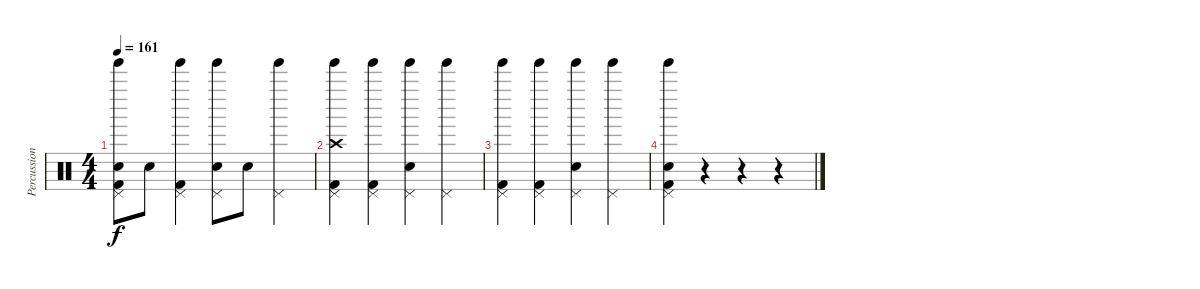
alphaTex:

\track ("Percussion" "Percussion") {instrument percussion}
\staff {score}
\articulation defaults
\ts (4 4)
\tempo 161
\clef neutral
\ks c
("Tinkle Bell (hit)" "Pedal Hi-Hat (hit)" "Electric Snare (hit)" "Kick (hit) 2").8{dy f} "Electric Snare (hit)".8 ("Tinkle Bell (hit)" "Pedal Hi-Hat (hit)" "Kick (hit) 2").4 ("Tinkle Bell (hit)" "Pedal Hi-Hat (hit)" "Electric Snare (hit)").8 "Electric Snare (hit)".8 ("Tinkle Bell (hit)" "Pedal Hi-Hat (hit)").4 |
("Tinkle Bell (hit)" "Pedal Hi-Hat (hit)" "Crash high (hit)" "Kick (hit) 2").4 ("Tinkle Bell (hit)" "Pedal Hi-Hat (hit)" "Kick (hit) 2").4 ("Tinkle Bell (hit)" "Pedal Hi-Hat (hit)" "Electric Snare (hit)").4 ("Tinkle Bell (hit)" "Pedal Hi-Hat (hit)").4 |
("Tinkle Bell (hit)" "Pedal Hi-Hat (hit)" "Kick (hit) 2").4 ("Tinkle Bell (hit)" "Pedal Hi-Hat (hit)" "Kick (hit) 2").4 ("Tinkle Bell (hit)" "Pedal Hi-Hat (hit)" "Electric Snare (hit)").4 ("Tinkle Bell (hit)" "Pedal Hi-Hat (hit)").4 |
("Tinkle Bell (hit)" "Pedal Hi-Hat (hit)" "Electric Snare (hit)" "Kick (hit) 2").4 r.4 r.4 r.4
